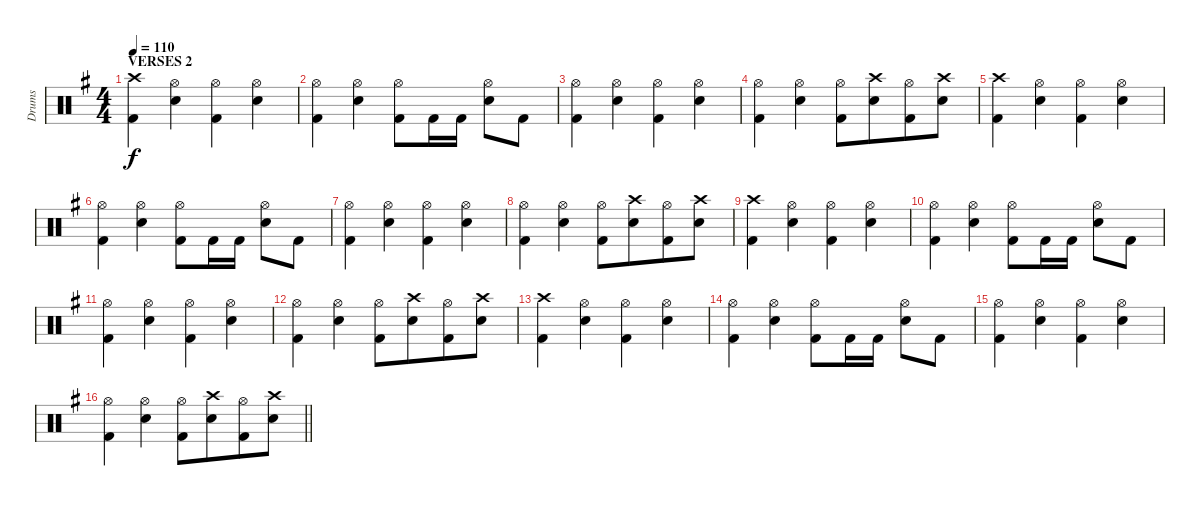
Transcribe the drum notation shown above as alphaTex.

\track ("Drums" "Drums") {instrument percussion}
\staff {score}
\articulation defaults
\ts (4 4)
\section ("" "VERSES 2")
\tempo 110
\clef neutral
\ks eminor
("Crash high (hit)" "Kick (hit) 2").4{dy f} ("Hi-Hat (open)" "Electric Snare (hit)").4 ("Hi-Hat (open)" "Kick (hit) 2").4 ("Hi-Hat (open)" "Electric Snare (hit)").4 |
("Hi-Hat (open)" "Kick (hit) 2").4 ("Hi-Hat (open)" "Electric Snare (hit)").4 ("Hi-Hat (open)" "Kick (hit) 2").8 "Kick (hit) 2".16 "Kick (hit) 2".16 ("Hi-Hat (open)" "Electric Snare (hit)").8 "Kick (hit) 2".8 |
("Hi-Hat (open)" "Kick (hit) 2").4 ("Hi-Hat (open)" "Electric Snare (hit)").4 ("Hi-Hat (open)" "Kick (hit) 2").4 ("Hi-Hat (open)" "Electric Snare (hit)").4 |
("Hi-Hat (open)" "Kick (hit) 2").4 ("Hi-Hat (open)" "Electric Snare (hit)").4 ("Hi-Hat (open)" "Kick (hit) 2").8 ("Crash high (hit)" "Electric Snare (hit)").8{beam merge} ("Hi-Hat (open)" "Kick (hit) 2").8 ("Crash high (hit)" "Electric Snare (hit)").8 |
("Crash high (hit)" "Kick (hit) 2").4 ("Hi-Hat (open)" "Electric Snare (hit)").4 ("Hi-Hat (open)" "Kick (hit) 2").4 ("Hi-Hat (open)" "Electric Snare (hit)").4 |
("Hi-Hat (open)" "Kick (hit) 2").4 ("Hi-Hat (open)" "Electric Snare (hit)").4 ("Hi-Hat (open)" "Kick (hit) 2").8 "Kick (hit) 2".16 "Kick (hit) 2".16 ("Hi-Hat (open)" "Electric Snare (hit)").8 "Kick (hit) 2".8 |
("Hi-Hat (open)" "Kick (hit) 2").4 ("Hi-Hat (open)" "Electric Snare (hit)").4 ("Hi-Hat (open)" "Kick (hit) 2").4 ("Hi-Hat (open)" "Electric Snare (hit)").4 |
("Hi-Hat (open)" "Kick (hit) 2").4 ("Hi-Hat (open)" "Electric Snare (hit)").4 ("Hi-Hat (open)" "Kick (hit) 2").8 ("Crash high (hit)" "Electric Snare (hit)").8{beam merge} ("Hi-Hat (open)" "Kick (hit) 2").8 ("Crash high (hit)" "Electric Snare (hit)").8 |
("Crash high (hit)" "Kick (hit) 2").4 ("Hi-Hat (open)" "Electric Snare (hit)").4 ("Hi-Hat (open)" "Kick (hit) 2").4 ("Hi-Hat (open)" "Electric Snare (hit)").4 |
("Hi-Hat (open)" "Kick (hit) 2").4 ("Hi-Hat (open)" "Electric Snare (hit)").4 ("Hi-Hat (open)" "Kick (hit) 2").8 "Kick (hit) 2".16 "Kick (hit) 2".16 ("Hi-Hat (open)" "Electric Snare (hit)").8 "Kick (hit) 2".8 |
("Hi-Hat (open)" "Kick (hit) 2").4 ("Hi-Hat (open)" "Electric Snare (hit)").4 ("Hi-Hat (open)" "Kick (hit) 2").4 ("Hi-Hat (open)" "Electric Snare (hit)").4 |
("Hi-Hat (open)" "Kick (hit) 2").4 ("Hi-Hat (open)" "Electric Snare (hit)").4 ("Hi-Hat (open)" "Kick (hit) 2").8 ("Crash high (hit)" "Electric Snare (hit)").8{beam merge} ("Hi-Hat (open)" "Kick (hit) 2").8 ("Crash high (hit)" "Electric Snare (hit)").8 |
("Crash high (hit)" "Kick (hit) 2").4 ("Hi-Hat (open)" "Electric Snare (hit)").4 ("Hi-Hat (open)" "Kick (hit) 2").4 ("Hi-Hat (open)" "Electric Snare (hit)").4 |
("Hi-Hat (open)" "Kick (hit) 2").4 ("Hi-Hat (open)" "Electric Snare (hit)").4 ("Hi-Hat (open)" "Kick (hit) 2").8 "Kick (hit) 2".16 "Kick (hit) 2".16 ("Hi-Hat (open)" "Electric Snare (hit)").8 "Kick (hit) 2".8 |
("Hi-Hat (open)" "Kick (hit) 2").4 ("Hi-Hat (open)" "Electric Snare (hit)").4 ("Hi-Hat (open)" "Kick (hit) 2").4 ("Hi-Hat (open)" "Electric Snare (hit)").4 |
\barLineRight lightlight
("Hi-Hat (open)" "Kick (hit) 2").4 ("Hi-Hat (open)" "Electric Snare (hit)").4 ("Hi-Hat (open)" "Kick (hit) 2").8 ("Crash high (hit)" "Electric Snare (hit)").8{beam merge} ("Hi-Hat (open)" "Kick (hit) 2").8 ("Crash high (hit)" "Electric Snare (hit)").8
